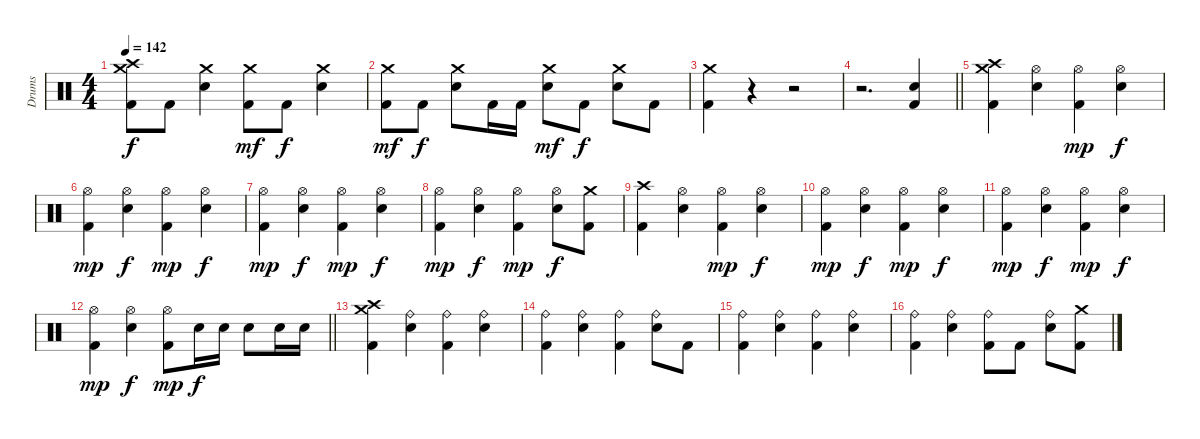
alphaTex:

\track ("Drums" "Drums") {instrument percussion}
\staff {score}
\articulation defaults
\ts (4 4)
\tempo 142
\clef neutral
\ks c
("Crash medium (hit)" "Crash high (hit)" "Kick (hit) 2").8{dy f} "Kick (hit) 2".8 ("Crash medium (hit)" "Electric Snare (hit)").4 ("Crash medium (hit)" "Kick (hit) 2").8{dy mf} "Kick (hit) 2".8{dy f} ("Crash medium (hit)" "Electric Snare (hit)").4 |
("Crash medium (hit)" "Kick (hit) 2").8{dy mf} "Kick (hit) 2".8{dy f} ("Crash medium (hit)" "Electric Snare (hit)").8 "Kick (hit) 2".16 "Kick (hit) 2".16 ("Crash medium (hit)" "Electric Snare (hit)").8{dy mf} "Kick (hit) 2".8{dy f} ("Crash medium (hit)" "Electric Snare (hit)").8 "Kick (hit) 2".8 |
("Crash medium (hit)" "Kick (hit) 2").4 r.4{volume 0} r.2 |
\barLineRight lightlight
r.2{d volume 16} ("Electric Snare (hit)" "Kick (hit) 2").4 |
("Crash high (hit)" "Crash medium (hit)" "Kick (hit) 2").4 ("Hi-Hat (open)" "Electric Snare (hit)").4 ("Hi-Hat (open)" "Kick (hit) 2").4{dy mp} ("Hi-Hat (open)" "Electric Snare (hit)").4{dy f} |
("Hi-Hat (open)" "Kick (hit) 2").4{dy mp} ("Hi-Hat (open)" "Electric Snare (hit)").4{dy f} ("Hi-Hat (open)" "Kick (hit) 2").4{dy mp} ("Hi-Hat (open)" "Electric Snare (hit)").4{dy f} |
("Hi-Hat (open)" "Kick (hit) 2").4{dy mp} ("Hi-Hat (open)" "Electric Snare (hit)").4{dy f} ("Hi-Hat (open)" "Kick (hit) 2").4{dy mp} ("Hi-Hat (open)" "Electric Snare (hit)").4{dy f} |
("Hi-Hat (open)" "Kick (hit) 2").4{dy mp} ("Hi-Hat (open)" "Electric Snare (hit)").4{dy f} ("Hi-Hat (open)" "Kick (hit) 2").4{dy mp} ("Hi-Hat (open)" "Electric Snare (hit)").8{dy f} ("Crash medium (hit)" "Kick (hit) 2").8 |
("Crash high (hit)" "Kick (hit) 2").4 ("Hi-Hat (open)" "Electric Snare (hit)").4 ("Hi-Hat (open)" "Kick (hit) 2").4{dy mp} ("Hi-Hat (open)" "Electric Snare (hit)").4{dy f} |
("Hi-Hat (open)" "Kick (hit) 2").4{dy mp} ("Hi-Hat (open)" "Electric Snare (hit)").4{dy f} ("Hi-Hat (open)" "Kick (hit) 2").4{dy mp} ("Hi-Hat (open)" "Electric Snare (hit)").4{dy f} |
("Hi-Hat (open)" "Kick (hit) 2").4{dy mp} ("Hi-Hat (open)" "Electric Snare (hit)").4{dy f} ("Hi-Hat (open)" "Kick (hit) 2").4{dy mp} ("Hi-Hat (open)" "Electric Snare (hit)").4{dy f} |
\barLineRight lightlight
("Hi-Hat (open)" "Kick (hit) 2").4{dy mp} ("Hi-Hat (open)" "Electric Snare (hit)").4{dy f} ("Hi-Hat (open)" "Kick (hit) 2").8{dy mp} "Electric Snare (hit)".16{dy f} "Electric Snare (hit)".16 "Electric Snare (hit)".8 "Electric Snare (hit)".16 "Electric Snare (hit)".16 |
("Crash high (hit)" "Crash medium (hit)" "Kick (hit) 2").4 ("Ride (bell)" "Electric Snare (hit)").4 ("Ride (bell)" "Kick (hit) 2").4 ("Ride (bell)" "Electric Snare (hit)").4 |
("Ride (bell)" "Kick (hit) 2").4 ("Ride (bell)" "Electric Snare (hit)").4 ("Ride (bell)" "Kick (hit) 2").4 ("Ride (bell)" "Electric Snare (hit)").8 "Kick (hit) 2".8 |
("Ride (bell)" "Kick (hit) 2").4 ("Ride (bell)" "Electric Snare (hit)").4 ("Ride (bell)" "Kick (hit) 2").4 ("Ride (bell)" "Electric Snare (hit)").4 |
("Ride (bell)" "Kick (hit) 2").4 ("Ride (bell)" "Electric Snare (hit)").4 ("Ride (bell)" "Kick (hit) 2").8 "Kick (hit) 2".8 ("Ride (bell)" "Electric Snare (hit)").8 ("Crash medium (hit)" "Kick (hit) 2").8
